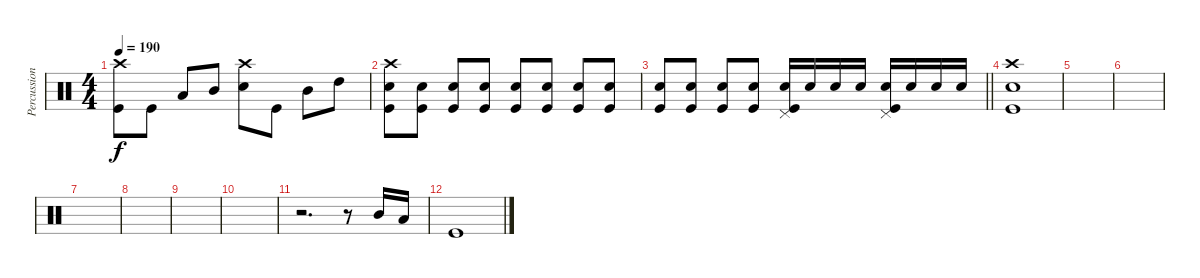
\track ("Percussion" "Percussion") {instrument percussion}
\staff {score}
\articulation defaults
\ts (4 4)
\tempo 190
\clef neutral
\ks c
("Crash high (hit)" "Kick (hit)").8{dy f} "Kick (hit)".8 "Low Tom (hit)".8 "Mid Tom (hit)".8 ("Crash high (hit)" "Snare (hit) 2").8 "Kick (hit)".8 "Mid Tom (hit)".8 "High Tom (hit)".8 |
("Crash high (hit)" "Snare (hit) 2" "Kick (hit)").8 ("Snare (hit) 2" "Kick (hit)").8 ("Snare (hit) 2" "Kick (hit)").8 ("Snare (hit) 2" "Kick (hit)").8 ("Snare (hit) 2" "Kick (hit)").8 ("Snare (hit) 2" "Kick (hit)").8 ("Snare (hit) 2" "Kick (hit)").8 ("Snare (hit) 2" "Kick (hit)").8 |
\barLineRight lightlight
("Snare (hit) 2" "Kick (hit)").8 ("Snare (hit) 2" "Kick (hit)").8 ("Snare (hit) 2" "Kick (hit)").8 ("Snare (hit) 2" "Kick (hit)").8 ("Pedal Hi-Hat (hit)" "Snare (hit) 2" "Kick (hit)").16 "Snare (hit) 2".16 "Snare (hit) 2".16 "Snare (hit) 2".16 ("Pedal Hi-Hat (hit)" "Snare (hit) 2" "Kick (hit)").16 "Snare (hit) 2".16 "Snare (hit) 2".16 "Snare (hit) 2".16 |
("Crash high (hit)" "Snare (hit) 2" "Kick (hit)").1 |
|
|
|
|
|
|
r.2{d} r.8 "Mid Tom (hit)".16 "Low Tom (hit)".16 |
"Kick (hit)".1
